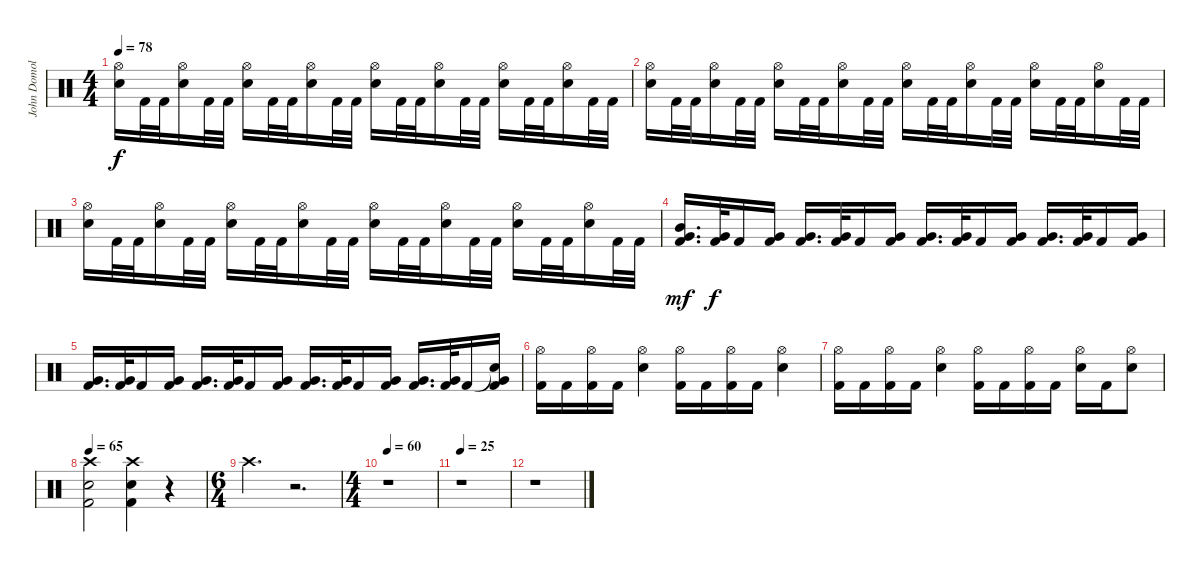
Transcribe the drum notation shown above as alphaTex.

\track ("John Domolyan (Drums)" "John Domol") {instrument percussion}
\staff {score}
\articulation defaults
\ts (4 4)
\tempo 78
\clef neutral
\ks c
("Hi-Hat (open)" "Electric Snare (hit)").16{dy f} "Kick (hit) 2".32 "Kick (hit) 2".32 ("Hi-Hat (open)" "Electric Snare (hit)").16 "Kick (hit) 2".32 "Kick (hit) 2".32 ("Hi-Hat (open)" "Electric Snare (hit)").16 "Kick (hit) 2".32 "Kick (hit) 2".32 ("Hi-Hat (open)" "Electric Snare (hit)").16 "Kick (hit) 2".32 "Kick (hit) 2".32 ("Hi-Hat (open)" "Electric Snare (hit)").16 "Kick (hit) 2".32 "Kick (hit) 2".32 ("Hi-Hat (open)" "Electric Snare (hit)").16 "Kick (hit) 2".32 "Kick (hit) 2".32 ("Hi-Hat (open)" "Electric Snare (hit)").16 "Kick (hit) 2".32 "Kick (hit) 2".32 ("Hi-Hat (open)" "Electric Snare (hit)").16 "Kick (hit) 2".32 "Kick (hit) 2".32 |
("Hi-Hat (open)" "Electric Snare (hit)").16 "Kick (hit) 2".32 "Kick (hit) 2".32 ("Hi-Hat (open)" "Electric Snare (hit)").16 "Kick (hit) 2".32 "Kick (hit) 2".32 ("Hi-Hat (open)" "Electric Snare (hit)").16 "Kick (hit) 2".32 "Kick (hit) 2".32 ("Hi-Hat (open)" "Electric Snare (hit)").16 "Kick (hit) 2".32 "Kick (hit) 2".32 ("Hi-Hat (open)" "Electric Snare (hit)").16 "Kick (hit) 2".32 "Kick (hit) 2".32 ("Hi-Hat (open)" "Electric Snare (hit)").16 "Kick (hit) 2".32 "Kick (hit) 2".32 ("Hi-Hat (open)" "Electric Snare (hit)").16 "Kick (hit) 2".32 "Kick (hit) 2".32 ("Hi-Hat (open)" "Electric Snare (hit)").16 "Kick (hit) 2".32 "Kick (hit) 2".32 |
("Hi-Hat (open)" "Electric Snare (hit)").16 "Kick (hit) 2".32 "Kick (hit) 2".32 ("Hi-Hat (open)" "Electric Snare (hit)").16 "Kick (hit) 2".32 "Kick (hit) 2".32 ("Hi-Hat (open)" "Electric Snare (hit)").16 "Kick (hit) 2".32 "Kick (hit) 2".32 ("Hi-Hat (open)" "Electric Snare (hit)").16 "Kick (hit) 2".32 "Kick (hit) 2".32 ("Hi-Hat (open)" "Electric Snare (hit)").16 "Kick (hit) 2".32 "Kick (hit) 2".32 ("Hi-Hat (open)" "Electric Snare (hit)").16 "Kick (hit) 2".32 "Kick (hit) 2".32 ("Hi-Hat (open)" "Electric Snare (hit)").16 "Kick (hit) 2".32 "Kick (hit) 2".32 ("Hi-Hat (open)" "Electric Snare (hit)").16 "Kick (hit) 2".32 "Kick (hit) 2".32 |
("Mid Tom (hit)"{tr (47 32)} "Very Low Tom (hit)" "Kick (hit) 2").16{d dy mf} ("Very Low Tom (hit)" "Kick (hit) 2").32{dy f} "Kick (hit) 2".16 ("Very Low Tom (hit)" "Kick (hit) 2").16 ("Very Low Tom (hit)" "Kick (hit) 2").16{d} ("Very Low Tom (hit)" "Kick (hit) 2").32 "Kick (hit) 2".16 ("Very Low Tom (hit)" "Kick (hit) 2").16 ("Very Low Tom (hit)" "Kick (hit) 2").16{d} ("Very Low Tom (hit)" "Kick (hit) 2").32 "Kick (hit) 2".16 ("Very Low Tom (hit)" "Kick (hit) 2").16 ("Very Low Tom (hit)" "Kick (hit) 2").16{d} ("Very Low Tom (hit)" "Kick (hit) 2").32 "Kick (hit) 2".16 ("Very Low Tom (hit)" "Kick (hit) 2").16 |
("Very Low Tom (hit)" "Kick (hit) 2").16{d} ("Very Low Tom (hit)" "Kick (hit) 2").32 "Kick (hit) 2".16 ("Very Low Tom (hit)" "Kick (hit) 2").16 ("Very Low Tom (hit)" "Kick (hit) 2").16{d} ("Very Low Tom (hit)" "Kick (hit) 2").32 "Kick (hit) 2".16 ("Very Low Tom (hit)" "Kick (hit) 2").16 ("Very Low Tom (hit)" "Kick (hit) 2").16{d} ("Very Low Tom (hit)" "Kick (hit) 2").32 "Kick (hit) 2".16 ("Very Low Tom (hit)" "Kick (hit) 2").16 ("Very Low Tom (hit)" "Kick (hit) 2").16{d} ("Very Low Tom (hit)" "Kick (hit) 2").32 "Kick (hit) 2".16 ("Snare (hit)"{t} "Very Low Tom (hit)" "Kick (hit) 2").16 |
("Hi-Hat (open)" "Kick (hit) 2").16 "Kick (hit) 2".16 ("Hi-Hat (open)" "Kick (hit) 2").16 "Kick (hit) 2".16 ("Hi-Hat (open)" "Electric Snare (hit)").4 ("Hi-Hat (open)" "Kick (hit) 2").16 "Kick (hit) 2".16 ("Hi-Hat (open)" "Kick (hit) 2").16 "Kick (hit) 2".16 ("Hi-Hat (open)" "Electric Snare (hit)").4 |
("Hi-Hat (open)" "Kick (hit) 2").16 "Kick (hit) 2".16 ("Hi-Hat (open)" "Kick (hit) 2").16 "Kick (hit) 2".16 ("Hi-Hat (open)" "Electric Snare (hit)").4 ("Hi-Hat (open)" "Kick (hit) 2").16 "Kick (hit) 2".16 ("Hi-Hat (open)" "Kick (hit) 2").16 "Kick (hit) 2".16 ("Hi-Hat (open)" "Electric Snare (hit)").16 "Kick (hit) 2".16 ("Hi-Hat (open)" "Electric Snare (hit)").8 |
\tempo 65
("Crash high (hit)" "Electric Snare (hit)" "Kick (hit) 2").2 ("Crash high (hit)" "Electric Snare (hit)" "Kick (hit) 2").4 r.4{volume 3} |
\ts (6 4)
"Crash high (hit)"{tr (49 32)}.2{d volume 10} r.2{d} |
\ts (4 4)
\tempo 60
r.1 |
\tempo 25
r.1 |
r.1
